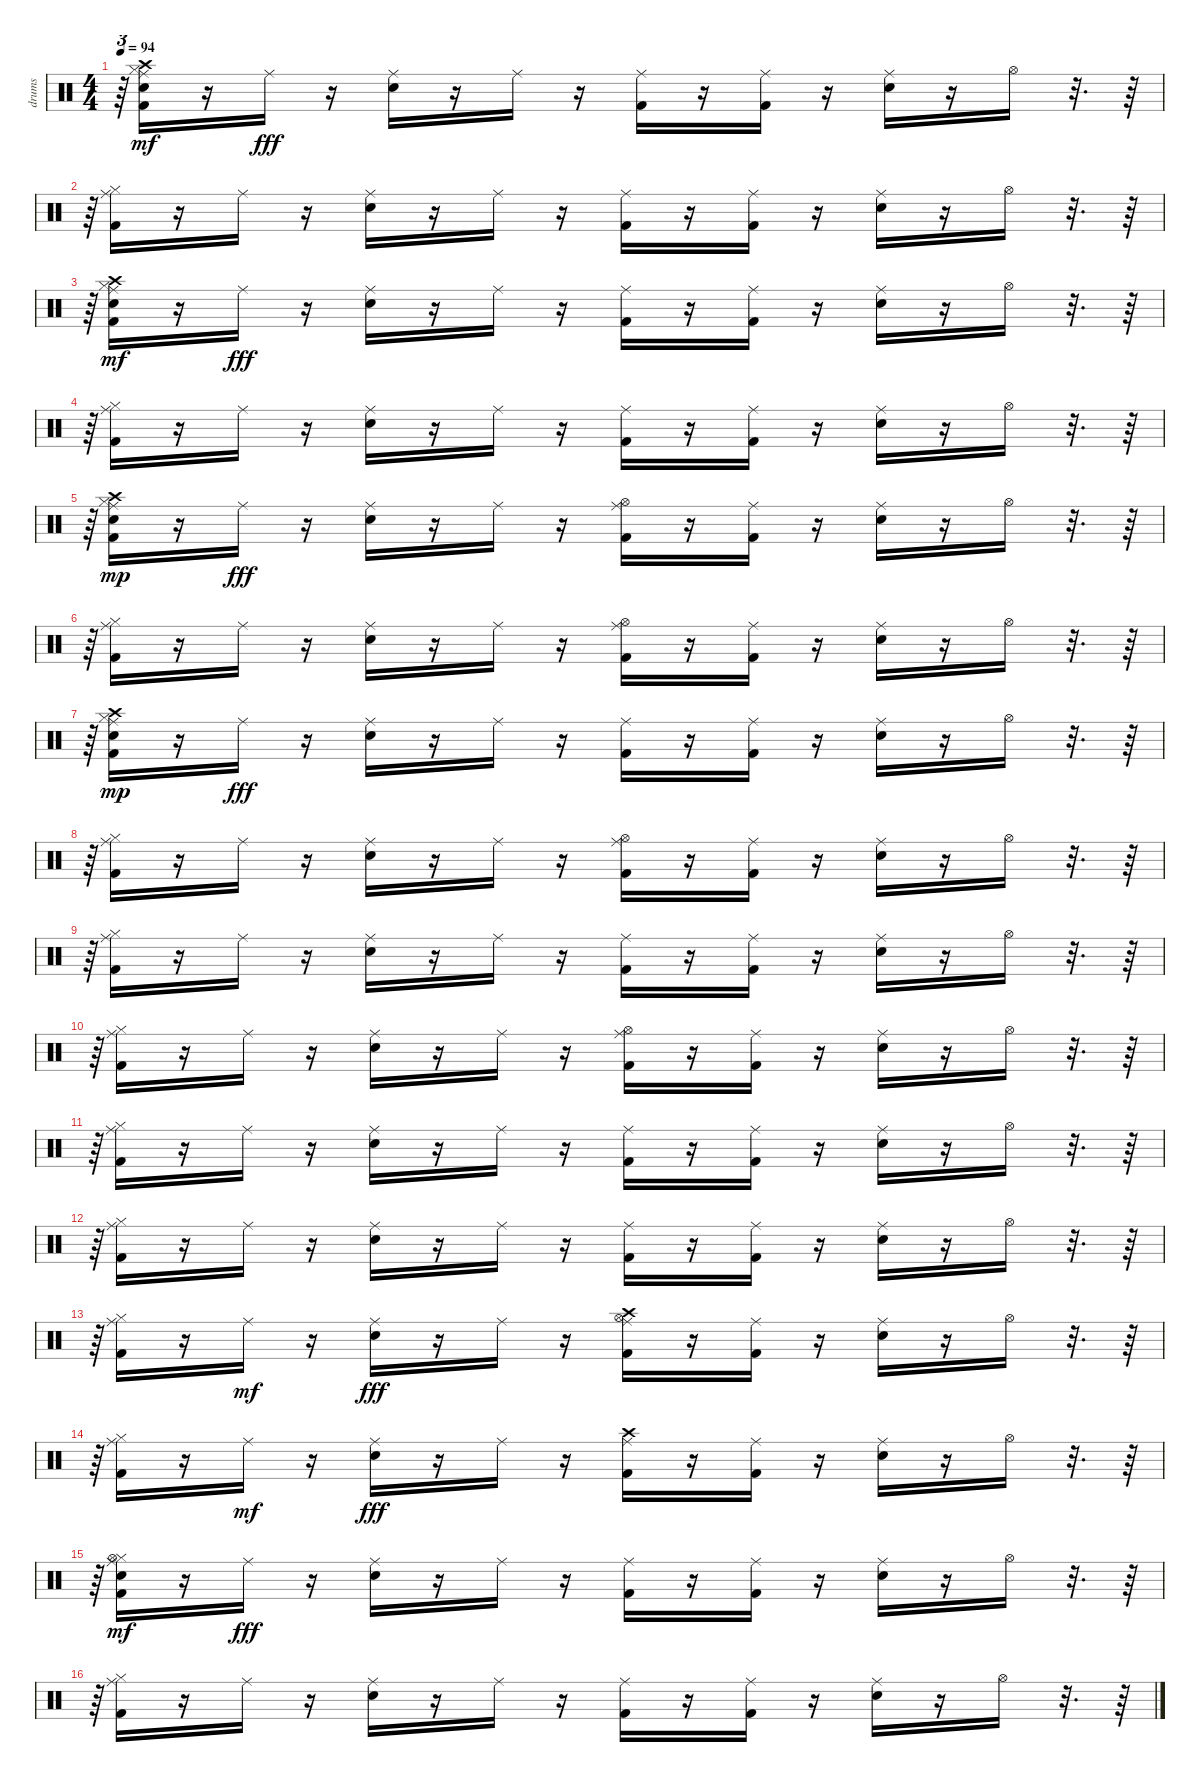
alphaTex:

\track ("drums               " "drums     ") {instrument percussion}
\staff {score}
\articulation defaults
\ts (4 4)
\tempo 94
\clef neutral
\ks c
r.64{tu (3 2) dy fff} ("Kick (hit) 2" "Ride (middle)" "Hi-Hat (closed)" "Snare (hit) 2" "Crash high (hit)").16{dy mf} r.16 "Ride (middle)".16{dy fff} r.16 ("Snare (hit) 2" "Ride (middle)").16 r.16 "Ride (middle)".16 r.16 ("Kick (hit) 2" "Ride (middle)").16 r.16 ("Kick (hit) 2" "Ride (middle)").16 r.16 ("Snare (hit) 2" "Ride (middle)").16 r.16 "Hi-Hat (open)".16 r.32{d} r.64 |
r.64{tu (3 2)} ("Kick (hit) 2" "Ride (middle)" "Hi-Hat (closed)").16 r.16 "Ride (middle)".16 r.16 ("Snare (hit) 2" "Ride (middle)").16 r.16 "Ride (middle)".16 r.16 ("Kick (hit) 2" "Ride (middle)").16 r.16 ("Kick (hit) 2" "Ride (middle)").16 r.16 ("Snare (hit) 2" "Ride (middle)").16 r.16 "Hi-Hat (open)".16 r.32{d} r.64 |
r.64{tu (3 2)} ("Kick (hit) 2" "Ride (middle)" "Hi-Hat (closed)" "Snare (hit) 2" "Crash high (hit)").16{dy mf} r.16 "Ride (middle)".16{dy fff} r.16 ("Snare (hit) 2" "Ride (middle)").16 r.16 "Ride (middle)".16 r.16 ("Kick (hit) 2" "Ride (middle)").16 r.16 ("Kick (hit) 2" "Ride (middle)").16 r.16 ("Snare (hit) 2" "Ride (middle)").16 r.16 "Hi-Hat (open)".16 r.32{d} r.64 |
r.64{tu (3 2)} ("Kick (hit) 2" "Ride (middle)" "Hi-Hat (closed)").16 r.16 "Ride (middle)".16 r.16 ("Snare (hit) 2" "Ride (middle)").16 r.16 "Ride (middle)".16 r.16 ("Kick (hit) 2" "Ride (middle)").16 r.16 ("Kick (hit) 2" "Ride (middle)").16 r.16 ("Snare (hit) 2" "Ride (middle)").16 r.16 "Hi-Hat (open)".16 r.32{d} r.64 |
r.64{tu (3 2)} ("Kick (hit) 2" "Ride (middle)" "Hi-Hat (closed)" "Snare (hit) 2" "Crash high (hit)").16{dy mp} r.16 "Ride (middle)".16{dy fff} r.16 ("Snare (hit) 2" "Ride (middle)").16 r.16 "Ride (middle)".16 r.16 ("Kick (hit) 2" "Hi-Hat (open)" "Ride (middle)").16 r.16 ("Kick (hit) 2" "Ride (middle)").16 r.16 ("Snare (hit) 2" "Ride (middle)").16 r.16 "Hi-Hat (open)".16 r.32{d} r.64 |
r.64{tu (3 2)} ("Kick (hit) 2" "Ride (middle)" "Hi-Hat (closed)").16 r.16 "Ride (middle)".16 r.16 ("Snare (hit) 2" "Ride (middle)").16 r.16 "Ride (middle)".16 r.16 ("Kick (hit) 2" "Hi-Hat (open)" "Ride (middle)").16 r.16 ("Kick (hit) 2" "Ride (middle)").16 r.16 ("Snare (hit) 2" "Ride (middle)").16 r.16 "Hi-Hat (open)".16 r.32{d} r.64 |
r.64{tu (3 2)} ("Kick (hit) 2" "Ride (middle)" "Hi-Hat (closed)" "Snare (hit) 2" "Crash high (hit)").16{dy mp} r.16 "Ride (middle)".16{dy fff} r.16 ("Snare (hit) 2" "Ride (middle)").16 r.16 "Ride (middle)".16 r.16 ("Kick (hit) 2" "Ride (middle)").16 r.16 ("Kick (hit) 2" "Ride (middle)").16 r.16 ("Snare (hit) 2" "Ride (middle)").16 r.16 "Hi-Hat (open)".16 r.32{d} r.64 |
r.64{tu (3 2)} ("Kick (hit) 2" "Ride (middle)" "Hi-Hat (closed)").16 r.16 "Ride (middle)".16 r.16 ("Snare (hit) 2" "Ride (middle)").16 r.16 "Ride (middle)".16 r.16 ("Kick (hit) 2" "Hi-Hat (open)" "Ride (middle)").16 r.16 ("Kick (hit) 2" "Ride (middle)").16 r.16 ("Snare (hit) 2" "Ride (middle)").16 r.16 "Hi-Hat (open)".16 r.32{d} r.64 |
r.64{tu (3 2)} ("Kick (hit) 2" "Ride (middle)" "Hi-Hat (closed)").16 r.16 "Ride (middle)".16 r.16 ("Snare (hit) 2" "Ride (middle)").16 r.16 "Ride (middle)".16 r.16 ("Kick (hit) 2" "Ride (middle)").16 r.16 ("Kick (hit) 2" "Ride (middle)").16 r.16 ("Snare (hit) 2" "Ride (middle)").16 r.16 "Hi-Hat (open)".16 r.32{d} r.64 |
r.64{tu (3 2)} ("Kick (hit) 2" "Ride (middle)" "Hi-Hat (closed)").16 r.16 "Ride (middle)".16 r.16 ("Snare (hit) 2" "Ride (middle)").16 r.16 "Ride (middle)".16 r.16 ("Kick (hit) 2" "Hi-Hat (open)" "Ride (middle)").16 r.16 ("Kick (hit) 2" "Ride (middle)").16 r.16 ("Snare (hit) 2" "Ride (middle)").16 r.16 "Hi-Hat (open)".16 r.32{d} r.64 |
r.64{tu (3 2)} ("Kick (hit) 2" "Ride (middle)" "Hi-Hat (closed)").16 r.16 "Ride (middle)".16 r.16 ("Snare (hit) 2" "Ride (middle)").16 r.16 "Ride (middle)".16 r.16 ("Kick (hit) 2" "Ride (middle)").16 r.16 ("Kick (hit) 2" "Ride (middle)").16 r.16 ("Snare (hit) 2" "Ride (middle)").16 r.16 "Hi-Hat (open)".16 r.32{d} r.64 |
r.64{tu (3 2)} ("Kick (hit) 2" "Ride (middle)" "Hi-Hat (closed)").16 r.16 "Ride (middle)".16 r.16 ("Snare (hit) 2" "Ride (middle)").16 r.16 "Ride (middle)".16 r.16 ("Kick (hit) 2" "Ride (middle)").16 r.16 ("Kick (hit) 2" "Ride (middle)").16 r.16 ("Snare (hit) 2" "Ride (middle)").16 r.16 "Hi-Hat (open)".16 r.32{d} r.64 |
r.64{tu (3 2)} ("Kick (hit) 2" "Ride (middle)" "Hi-Hat (closed)").16 r.16 "Ride (middle)".16{dy mf} r.16 ("Snare (hit) 2" "Ride (middle)").16{dy fff} r.16 "Ride (middle)".16 r.16 ("Kick (hit) 2" "Crash high (hit)" "Hi-Hat (open)" "Ride (middle)").16 r.16 ("Kick (hit) 2" "Ride (middle)").16 r.16 ("Snare (hit) 2" "Ride (middle)").16 r.16 "Hi-Hat (open)".16 r.32{d} r.64 |
r.64{tu (3 2)} ("Kick (hit) 2" "Ride (middle)" "Hi-Hat (closed)").16 r.16 "Ride (middle)".16{dy mf} r.16 ("Snare (hit) 2" "Ride (middle)").16{dy fff} r.16 "Ride (middle)".16 r.16 ("Kick (hit) 2" "Crash high (hit)" "Ride (middle)").16 r.16 ("Kick (hit) 2" "Ride (middle)").16 r.16 ("Snare (hit) 2" "Ride (middle)").16 r.16 "Hi-Hat (open)".16 r.32{d} r.64 |
r.64{tu (3 2)} ("Kick (hit) 2" "Ride (middle)" "Hi-Hat (closed)" "Snare (hit) 2" "Hi-Hat (open)").16{dy mf} r.16 "Ride (middle)".16{dy fff} r.16 ("Snare (hit) 2" "Ride (middle)").16 r.16 "Ride (middle)".16 r.16 ("Kick (hit) 2" "Ride (middle)").16 r.16 ("Kick (hit) 2" "Ride (middle)").16 r.16 ("Snare (hit) 2" "Ride (middle)").16 r.16 "Hi-Hat (open)".16 r.32{d} r.64 |
r.64{tu (3 2)} ("Kick (hit) 2" "Ride (middle)" "Hi-Hat (closed)").16 r.16 "Ride (middle)".16 r.16 ("Snare (hit) 2" "Ride (middle)").16 r.16 "Ride (middle)".16 r.16 ("Kick (hit) 2" "Ride (middle)").16 r.16 ("Kick (hit) 2" "Ride (middle)").16 r.16 ("Snare (hit) 2" "Ride (middle)").16 r.16 "Hi-Hat (open)".16 r.32{d} r.64
